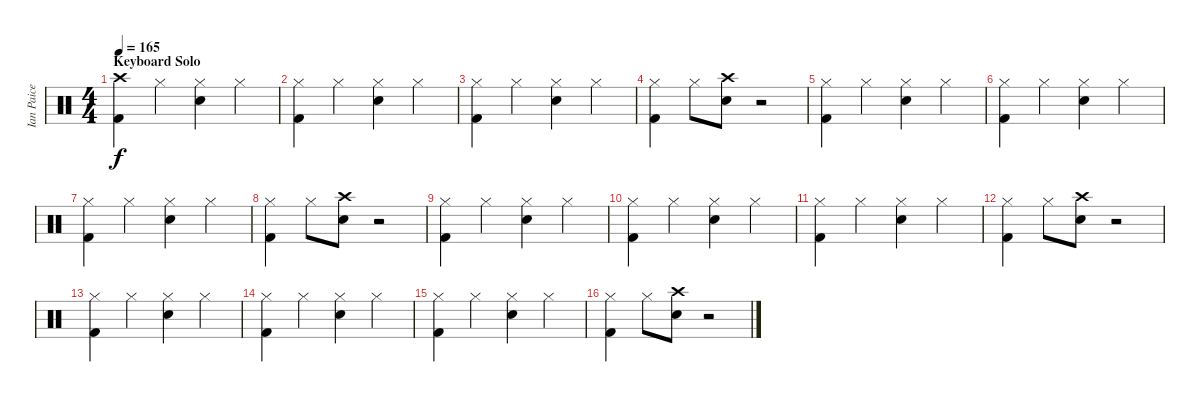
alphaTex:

\track ("Ian Paice" "Ian Paice") {instrument percussion}
\staff {score}
\articulation defaults
\ts (4 4)
\section ("" "Keyboard Solo")
\tempo 165
\clef neutral
\ks c
("Crash high (hit)" "Kick (hit) 2").4{dy f} "Hi-Hat (closed)".4 ("Hi-Hat (closed)" "Snare (hit) 2").4 "Hi-Hat (closed)".4 |
("Hi-Hat (closed)" "Kick (hit) 2").4 "Hi-Hat (closed)".4 ("Hi-Hat (closed)" "Snare (hit) 2").4 "Hi-Hat (closed)".4 |
("Hi-Hat (closed)" "Kick (hit) 2").4 "Hi-Hat (closed)".4 ("Hi-Hat (closed)" "Snare (hit) 2").4 "Hi-Hat (closed)".4 |
("Hi-Hat (closed)" "Kick (hit) 2").4 "Hi-Hat (closed)".8 ("Crash high (hit)" "Snare (hit) 2").8 r.2 |
("Hi-Hat (closed)" "Kick (hit) 2").4 "Hi-Hat (closed)".4 ("Hi-Hat (closed)" "Snare (hit) 2").4 "Hi-Hat (closed)".4 |
("Hi-Hat (closed)" "Kick (hit) 2").4 "Hi-Hat (closed)".4 ("Hi-Hat (closed)" "Snare (hit) 2").4 "Hi-Hat (closed)".4 |
("Hi-Hat (closed)" "Kick (hit) 2").4 "Hi-Hat (closed)".4 ("Hi-Hat (closed)" "Snare (hit) 2").4 "Hi-Hat (closed)".4 |
("Hi-Hat (closed)" "Kick (hit) 2").4 "Hi-Hat (closed)".8 ("Crash high (hit)" "Snare (hit) 2").8 r.2 |
("Hi-Hat (closed)" "Kick (hit) 2").4 "Hi-Hat (closed)".4 ("Hi-Hat (closed)" "Snare (hit) 2").4 "Hi-Hat (closed)".4 |
("Hi-Hat (closed)" "Kick (hit) 2").4 "Hi-Hat (closed)".4 ("Hi-Hat (closed)" "Snare (hit) 2").4 "Hi-Hat (closed)".4 |
("Hi-Hat (closed)" "Kick (hit) 2").4 "Hi-Hat (closed)".4 ("Hi-Hat (closed)" "Snare (hit) 2").4 "Hi-Hat (closed)".4 |
("Hi-Hat (closed)" "Kick (hit) 2").4 "Hi-Hat (closed)".8 ("Crash high (hit)" "Snare (hit) 2").8 r.2 |
("Hi-Hat (closed)" "Kick (hit) 2").4 "Hi-Hat (closed)".4 ("Hi-Hat (closed)" "Snare (hit) 2").4 "Hi-Hat (closed)".4 |
("Hi-Hat (closed)" "Kick (hit) 2").4 "Hi-Hat (closed)".4 ("Hi-Hat (closed)" "Snare (hit) 2").4 "Hi-Hat (closed)".4 |
("Hi-Hat (closed)" "Kick (hit) 2").4 "Hi-Hat (closed)".4 ("Hi-Hat (closed)" "Snare (hit) 2").4 "Hi-Hat (closed)".4 |
("Hi-Hat (closed)" "Kick (hit) 2").4 "Hi-Hat (closed)".8 ("Crash high (hit)" "Snare (hit) 2").8 r.2
